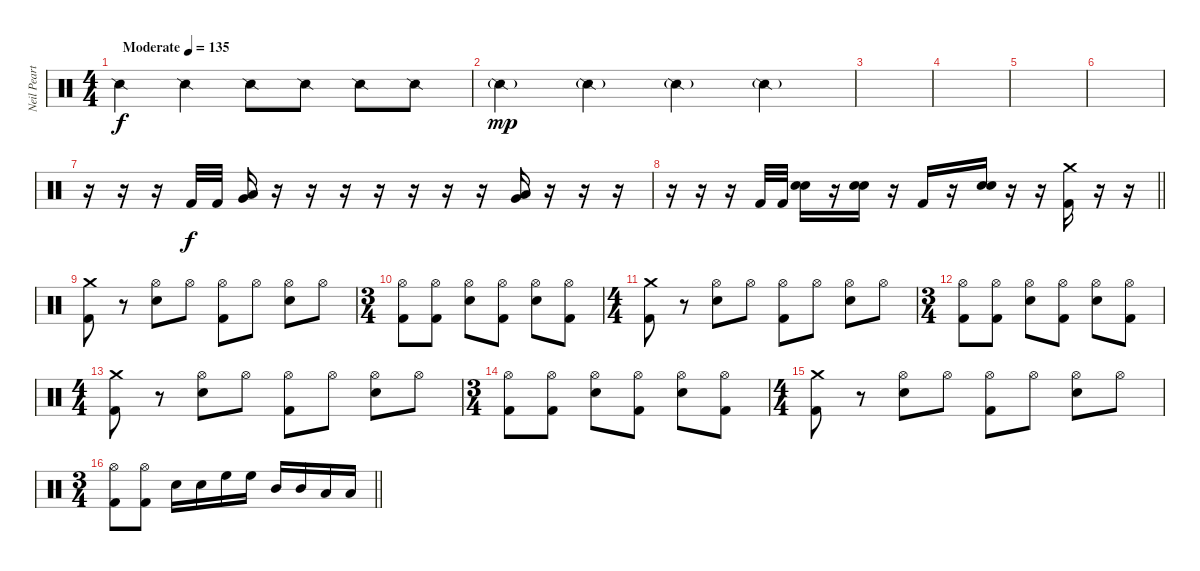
\track ("Neil Peart" "Neil Peart") {instrument percussion}
\staff {score}
\articulation defaults
\ts (4 4)
\tempo (135 "Moderate")
\clef neutral
\ks c "Snare (side stick) 2".4{dy f} "Snare (side stick) 2".4 "Snare (side stick) 2".8 "Snare (side stick) 2".8 "Snare (side stick) 2".8 "Snare (side stick) 2".8
|
"Snare (side stick) 2"{g}.4{dy mp} "Snare (side stick) 2"{g}.4 "Snare (side stick) 2"{g}.4 "Snare (side stick) 2"{g}.4 |
|
|
|
|
r.16 r.16 r.16 "Kick (hit) 2".32{dy f} "Kick (hit) 2".32 ("Very Low Tom (hit)" "Low Tom (hit)").16 r.16 r.16 r.16 r.16 r.16 r.16 r.16 ("Very Low Tom (hit)" "Low Tom (hit)").16 r.16 r.16 r.16 |
\barLineRight lightlight
r.16 r.16 r.16 "Kick (hit) 2".32 "Kick (hit) 2".32 ("Snare (hit) 2" "Snare (hit) 2").16 r.16 ("Snare (hit) 2" "Snare (hit) 2").16 r.16 "Kick (hit) 2".16 r.16 ("Snare (hit) 2" "Snare (hit) 2").16 r.16 r.16 ("Crash medium (hit)" "Kick (hit) 2").16 r.16 r.16{volume 0} |
("Crash medium (hit)" "Kick (hit) 2").8{volume 14} r.8 ("Hi-Hat (open)" "Snare (hit) 2").8 "Hi-Hat (open)".8 ("Hi-Hat (open)" "Kick (hit) 2").8 "Hi-Hat (open)".8 ("Hi-Hat (open)" "Snare (hit) 2").8 "Hi-Hat (open)".8 |
\ts (3 4)
("Hi-Hat (open)" "Kick (hit) 2").8 ("Hi-Hat (open)" "Kick (hit) 2").8 ("Hi-Hat (open)" "Snare (hit) 2").8 ("Hi-Hat (open)" "Kick (hit) 2").8 ("Hi-Hat (open)" "Snare (hit) 2").8 ("Hi-Hat (open)" "Kick (hit) 2").8 |
\ts (4 4)
("Crash medium (hit)" "Kick (hit) 2").8 r.8 ("Hi-Hat (open)" "Snare (hit) 2").8 "Hi-Hat (open)".8 ("Hi-Hat (open)" "Kick (hit) 2").8 "Hi-Hat (open)".8 ("Hi-Hat (open)" "Snare (hit) 2").8 "Hi-Hat (open)".8 |
\ts (3 4)
("Hi-Hat (open)" "Kick (hit) 2").8 ("Hi-Hat (open)" "Kick (hit) 2").8 ("Hi-Hat (open)" "Snare (hit) 2").8 ("Hi-Hat (open)" "Kick (hit) 2").8 ("Hi-Hat (open)" "Snare (hit) 2").8 ("Hi-Hat (open)" "Kick (hit) 2").8 |
\ts (4 4)
("Crash medium (hit)" "Kick (hit) 2").8 r.8 ("Hi-Hat (open)" "Snare (hit) 2").8 "Hi-Hat (open)".8 ("Hi-Hat (open)" "Kick (hit) 2").8 "Hi-Hat (open)".8 ("Hi-Hat (open)" "Snare (hit) 2").8 "Hi-Hat (open)".8 |
\ts (3 4)
("Hi-Hat (open)" "Kick (hit) 2").8 ("Hi-Hat (open)" "Kick (hit) 2").8 ("Hi-Hat (open)" "Snare (hit) 2").8 ("Hi-Hat (open)" "Kick (hit) 2").8 ("Hi-Hat (open)" "Snare (hit) 2").8 ("Hi-Hat (open)" "Kick (hit) 2").8 |
\ts (4 4)
("Crash medium (hit)" "Kick (hit) 2").8 r.8 ("Hi-Hat (open)" "Snare (hit) 2").8 "Hi-Hat (open)".8 ("Hi-Hat (open)" "Kick (hit) 2").8 "Hi-Hat (open)".8 ("Hi-Hat (open)" "Snare (hit) 2").8 "Hi-Hat (open)".8 |
\ts (3 4)
\barLineRight lightlight
("Hi-Hat (open)" "Kick (hit) 2").8 ("Hi-Hat (open)" "Kick (hit) 2").8 "Snare (hit) 2".16 "Snare (hit) 2".16 "High Floor Tom (hit)".16 "High Floor Tom (hit)".16 "Mid Tom (hit)".16 "Mid Tom (hit)".16 "Low Tom (hit)".16 "Low Tom (hit)".16
